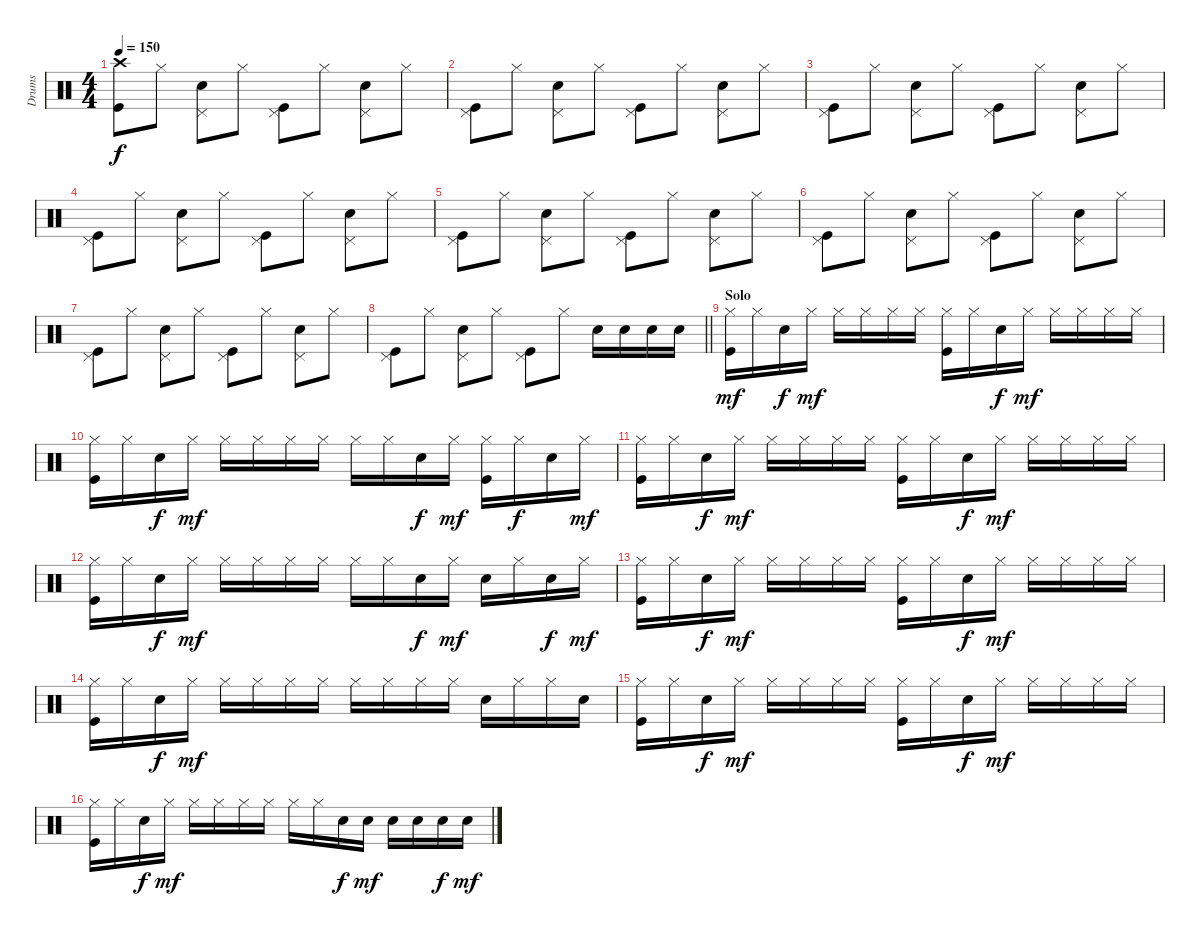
\track ("Drums" "Drums") {instrument percussion}
\staff {score}
\articulation defaults
\ts (4 4)
\tempo 150
\clef neutral
\ks c
("Crash high (hit)" "Kick (hit)").8{dy f} "Hi-Hat (closed)".8 ("Pedal Hi-Hat (hit)" "Snare (hit) 2").8 "Hi-Hat (closed)".8 ("Pedal Hi-Hat (hit)" "Kick (hit)").8 "Hi-Hat (closed)".8 ("Pedal Hi-Hat (hit)" "Snare (hit) 2").8 "Hi-Hat (closed)".8 |
("Pedal Hi-Hat (hit)" "Kick (hit)").8 "Hi-Hat (closed)".8 ("Pedal Hi-Hat (hit)" "Snare (hit) 2").8 "Hi-Hat (closed)".8 ("Pedal Hi-Hat (hit)" "Kick (hit)").8 "Hi-Hat (closed)".8 ("Pedal Hi-Hat (hit)" "Snare (hit) 2").8 "Hi-Hat (closed)".8 |
("Pedal Hi-Hat (hit)" "Kick (hit)").8 "Hi-Hat (closed)".8 ("Pedal Hi-Hat (hit)" "Snare (hit) 2").8 "Hi-Hat (closed)".8 ("Pedal Hi-Hat (hit)" "Kick (hit)").8 "Hi-Hat (closed)".8 ("Pedal Hi-Hat (hit)" "Snare (hit) 2").8 "Hi-Hat (closed)".8 |
("Pedal Hi-Hat (hit)" "Kick (hit)").8 "Hi-Hat (closed)".8 ("Pedal Hi-Hat (hit)" "Snare (hit) 2").8 "Hi-Hat (closed)".8 ("Pedal Hi-Hat (hit)" "Kick (hit)").8 "Hi-Hat (closed)".8 ("Pedal Hi-Hat (hit)" "Snare (hit) 2").8 "Hi-Hat (closed)".8 |
("Pedal Hi-Hat (hit)" "Kick (hit)").8 "Hi-Hat (closed)".8 ("Pedal Hi-Hat (hit)" "Snare (hit) 2").8 "Hi-Hat (closed)".8 ("Pedal Hi-Hat (hit)" "Kick (hit)").8 "Hi-Hat (closed)".8 ("Pedal Hi-Hat (hit)" "Snare (hit) 2").8 "Hi-Hat (closed)".8 |
("Pedal Hi-Hat (hit)" "Kick (hit)").8 "Hi-Hat (closed)".8 ("Pedal Hi-Hat (hit)" "Snare (hit) 2").8 "Hi-Hat (closed)".8 ("Pedal Hi-Hat (hit)" "Kick (hit)").8 "Hi-Hat (closed)".8 ("Pedal Hi-Hat (hit)" "Snare (hit) 2").8 "Hi-Hat (closed)".8 |
("Pedal Hi-Hat (hit)" "Kick (hit)").8 "Hi-Hat (closed)".8 ("Pedal Hi-Hat (hit)" "Snare (hit) 2").8 "Hi-Hat (closed)".8 ("Pedal Hi-Hat (hit)" "Kick (hit)").8 "Hi-Hat (closed)".8 ("Pedal Hi-Hat (hit)" "Snare (hit) 2").8 "Hi-Hat (closed)".8 |
\barLineRight lightlight
("Pedal Hi-Hat (hit)" "Kick (hit)").8 "Hi-Hat (closed)".8 ("Pedal Hi-Hat (hit)" "Snare (hit) 2").8 "Hi-Hat (closed)".8 ("Pedal Hi-Hat (hit)" "Kick (hit)").8 "Hi-Hat (closed)".8 "Snare (hit) 2".16 "Snare (hit) 2".16 "Snare (hit) 2".16 "Snare (hit) 2".16 |
\section ("" "Solo")
("Hi-Hat (closed)" "Kick (hit)").16{dy mf} "Hi-Hat (closed)".16 "Snare (hit) 2".16{dy f} "Hi-Hat (closed)".16{dy mf} "Hi-Hat (closed)".16 "Hi-Hat (closed)".16 "Hi-Hat (closed)".16 "Hi-Hat (closed)".16 ("Hi-Hat (closed)" "Kick (hit)").16 "Hi-Hat (closed)".16 "Snare (hit) 2".16{dy f} "Hi-Hat (closed)".16{dy mf} "Hi-Hat (closed)".16 "Hi-Hat (closed)".16 "Hi-Hat (closed)".16 "Hi-Hat (closed)".16 |
("Hi-Hat (closed)" "Kick (hit)").16 "Hi-Hat (closed)".16 "Snare (hit) 2".16{dy f} "Hi-Hat (closed)".16{dy mf} "Hi-Hat (closed)".16 "Hi-Hat (closed)".16 "Hi-Hat (closed)".16 "Hi-Hat (closed)".16 "Hi-Hat (closed)".16 "Hi-Hat (closed)".16 "Snare (hit) 2".16{dy f} "Hi-Hat (closed)".16{dy mf} ("Hi-Hat (closed)" "Kick (hit)").16 "Hi-Hat (closed)".16{dy f} "Snare (hit) 2".16 "Hi-Hat (closed)".16{dy mf} |
("Hi-Hat (closed)" "Kick (hit)").16 "Hi-Hat (closed)".16 "Snare (hit) 2".16{dy f} "Hi-Hat (closed)".16{dy mf} "Hi-Hat (closed)".16 "Hi-Hat (closed)".16 "Hi-Hat (closed)".16 "Hi-Hat (closed)".16 ("Hi-Hat (closed)" "Kick (hit)").16 "Hi-Hat (closed)".16 "Snare (hit) 2".16{dy f} "Hi-Hat (closed)".16{dy mf} "Hi-Hat (closed)".16 "Hi-Hat (closed)".16 "Hi-Hat (closed)".16 "Hi-Hat (closed)".16 |
("Hi-Hat (closed)" "Kick (hit)").16 "Hi-Hat (closed)".16 "Snare (hit) 2".16{dy f} "Hi-Hat (closed)".16{dy mf} "Hi-Hat (closed)".16 "Hi-Hat (closed)".16 "Hi-Hat (closed)".16 "Hi-Hat (closed)".16 "Hi-Hat (closed)".16 "Hi-Hat (closed)".16 "Snare (hit) 2".16{dy f} "Hi-Hat (closed)".16{dy mf} "Snare (hit) 2".16 "Hi-Hat (closed)".16 "Snare (hit) 2".16{dy f} "Hi-Hat (closed)".16{dy mf} |
("Hi-Hat (closed)" "Kick (hit)").16 "Hi-Hat (closed)".16 "Snare (hit) 2".16{dy f} "Hi-Hat (closed)".16{dy mf} "Hi-Hat (closed)".16 "Hi-Hat (closed)".16 "Hi-Hat (closed)".16 "Hi-Hat (closed)".16 ("Hi-Hat (closed)" "Kick (hit)").16 "Hi-Hat (closed)".16 "Snare (hit) 2".16{dy f} "Hi-Hat (closed)".16{dy mf} "Hi-Hat (closed)".16 "Hi-Hat (closed)".16 "Hi-Hat (closed)".16 "Hi-Hat (closed)".16 |
("Hi-Hat (closed)" "Kick (hit)").16 "Hi-Hat (closed)".16 "Snare (hit) 2".16{dy f} "Hi-Hat (closed)".16{dy mf} "Hi-Hat (closed)".16 "Hi-Hat (closed)".16 "Hi-Hat (closed)".16 "Hi-Hat (closed)".16 "Hi-Hat (closed)".16 "Hi-Hat (closed)".16 "Hi-Hat (closed)".16 "Hi-Hat (closed)".16 "Snare (hit) 2".16 "Hi-Hat (closed)".16 "Hi-Hat (closed)".16 "Snare (hit) 2".16 |
("Hi-Hat (closed)" "Kick (hit)").16 "Hi-Hat (closed)".16 "Snare (hit) 2".16{dy f} "Hi-Hat (closed)".16{dy mf} "Hi-Hat (closed)".16 "Hi-Hat (closed)".16 "Hi-Hat (closed)".16 "Hi-Hat (closed)".16 ("Hi-Hat (closed)" "Kick (hit)").16 "Hi-Hat (closed)".16 "Snare (hit) 2".16{dy f} "Hi-Hat (closed)".16{dy mf} "Hi-Hat (closed)".16 "Hi-Hat (closed)".16 "Hi-Hat (closed)".16 "Hi-Hat (closed)".16 |
("Hi-Hat (closed)" "Kick (hit)").16 "Hi-Hat (closed)".16 "Snare (hit) 2".16{dy f} "Hi-Hat (closed)".16{dy mf} "Hi-Hat (closed)".16 "Hi-Hat (closed)".16 "Hi-Hat (closed)".16 "Hi-Hat (closed)".16 "Hi-Hat (closed)".16 "Hi-Hat (closed)".16 "Snare (hit) 2".16{dy f} "Snare (hit) 2".16{dy mf} "Snare (hit) 2".16 "Snare (hit) 2".16 "Snare (hit) 2".16{dy f} "Snare (hit) 2".16{dy mf}
